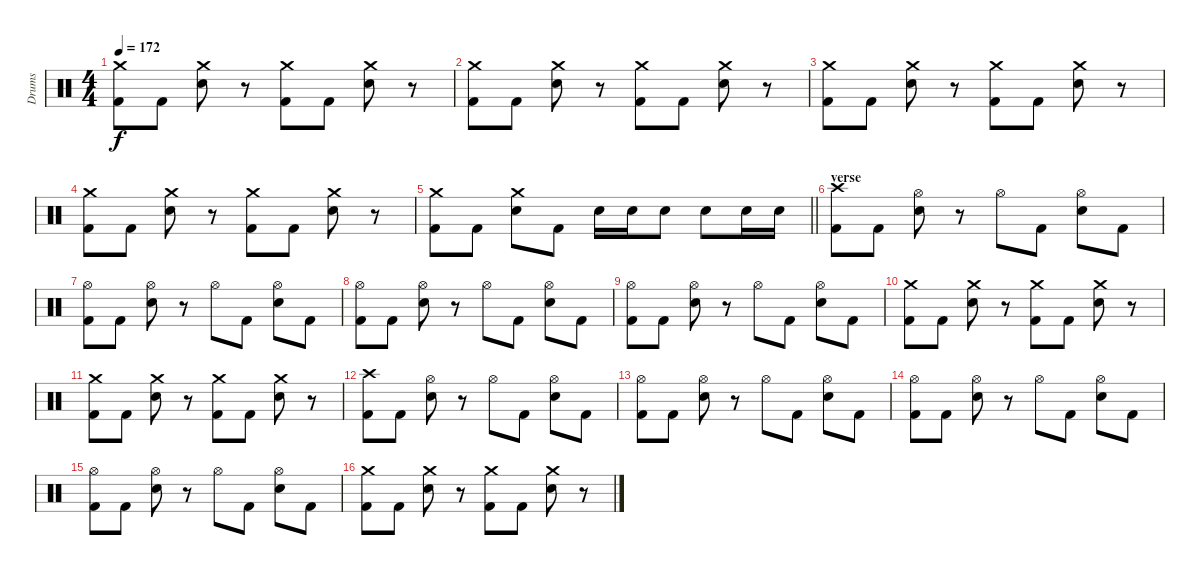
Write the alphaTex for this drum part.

\track ("Drums" "Drums") {instrument percussion}
\staff {score}
\articulation defaults
\ts (4 4)
\tempo 172
\clef neutral
\ks c
("Crash medium (hit)" "Kick (hit) 2").8{dy f} "Kick (hit) 2".8 ("Crash medium (hit)" "Electric Snare (hit)").8 r.8 ("Crash medium (hit)" "Kick (hit) 2").8 "Kick (hit) 2".8 ("Crash medium (hit)" "Electric Snare (hit)").8 r.8 |
("Crash medium (hit)" "Kick (hit) 2").8 "Kick (hit) 2".8 ("Crash medium (hit)" "Electric Snare (hit)").8 r.8 ("Crash medium (hit)" "Kick (hit) 2").8 "Kick (hit) 2".8 ("Crash medium (hit)" "Electric Snare (hit)").8 r.8 |
("Crash medium (hit)" "Kick (hit) 2").8 "Kick (hit) 2".8 ("Crash medium (hit)" "Electric Snare (hit)").8 r.8 ("Crash medium (hit)" "Kick (hit) 2").8 "Kick (hit) 2".8 ("Crash medium (hit)" "Electric Snare (hit)").8 r.8 |
("Crash medium (hit)" "Kick (hit) 2").8 "Kick (hit) 2".8 ("Crash medium (hit)" "Electric Snare (hit)").8 r.8 ("Crash medium (hit)" "Kick (hit) 2").8 "Kick (hit) 2".8 ("Crash medium (hit)" "Electric Snare (hit)").8 r.8 |
\barLineRight lightlight
("Crash medium (hit)" "Kick (hit) 2").8 "Kick (hit) 2".8 ("Crash medium (hit)" "Electric Snare (hit)").8 "Kick (hit) 2".8 "Electric Snare (hit)".16 "Electric Snare (hit)".16 "Electric Snare (hit)".8 "Electric Snare (hit)".8 "Electric Snare (hit)".16 "Electric Snare (hit)".16 |
\section ("" "verse")
("Crash high (hit)" "Kick (hit) 2").8 "Kick (hit) 2".8 ("Hi-Hat (open)" "Electric Snare (hit)").8 r.8 "Hi-Hat (open)".8 "Kick (hit) 2".8 ("Hi-Hat (open)" "Electric Snare (hit)").8 "Kick (hit) 2".8 |
("Hi-Hat (open)" "Kick (hit) 2").8 "Kick (hit) 2".8 ("Hi-Hat (open)" "Electric Snare (hit)").8 r.8 "Hi-Hat (open)".8 "Kick (hit) 2".8 ("Hi-Hat (open)" "Electric Snare (hit)").8 "Kick (hit) 2".8 |
("Hi-Hat (open)" "Kick (hit) 2").8 "Kick (hit) 2".8 ("Hi-Hat (open)" "Electric Snare (hit)").8 r.8 "Hi-Hat (open)".8 "Kick (hit) 2".8 ("Hi-Hat (open)" "Electric Snare (hit)").8 "Kick (hit) 2".8 |
("Hi-Hat (open)" "Kick (hit) 2").8 "Kick (hit) 2".8 ("Hi-Hat (open)" "Electric Snare (hit)").8 r.8 "Hi-Hat (open)".8 "Kick (hit) 2".8 ("Hi-Hat (open)" "Electric Snare (hit)").8 "Kick (hit) 2".8 |
("Crash medium (hit)" "Kick (hit) 2").8 "Kick (hit) 2".8 ("Crash medium (hit)" "Electric Snare (hit)").8 r.8 ("Crash medium (hit)" "Kick (hit) 2").8 "Kick (hit) 2".8 ("Crash medium (hit)" "Electric Snare (hit)").8 r.8 |
("Crash medium (hit)" "Kick (hit) 2").8 "Kick (hit) 2".8 ("Crash medium (hit)" "Electric Snare (hit)").8 r.8 ("Crash medium (hit)" "Kick (hit) 2").8 "Kick (hit) 2".8 ("Crash medium (hit)" "Electric Snare (hit)").8 r.8 |
("Crash high (hit)" "Kick (hit) 2").8 "Kick (hit) 2".8 ("Hi-Hat (open)" "Electric Snare (hit)").8 r.8 "Hi-Hat (open)".8 "Kick (hit) 2".8 ("Hi-Hat (open)" "Electric Snare (hit)").8 "Kick (hit) 2".8 |
("Hi-Hat (open)" "Kick (hit) 2").8 "Kick (hit) 2".8 ("Hi-Hat (open)" "Electric Snare (hit)").8 r.8 "Hi-Hat (open)".8 "Kick (hit) 2".8 ("Hi-Hat (open)" "Electric Snare (hit)").8 "Kick (hit) 2".8 |
("Hi-Hat (open)" "Kick (hit) 2").8 "Kick (hit) 2".8 ("Hi-Hat (open)" "Electric Snare (hit)").8 r.8 "Hi-Hat (open)".8 "Kick (hit) 2".8 ("Hi-Hat (open)" "Electric Snare (hit)").8 "Kick (hit) 2".8 |
("Hi-Hat (open)" "Kick (hit) 2").8 "Kick (hit) 2".8 ("Hi-Hat (open)" "Electric Snare (hit)").8 r.8 "Hi-Hat (open)".8 "Kick (hit) 2".8 ("Hi-Hat (open)" "Electric Snare (hit)").8 "Kick (hit) 2".8 |
("Crash medium (hit)" "Kick (hit) 2").8 "Kick (hit) 2".8 ("Crash medium (hit)" "Electric Snare (hit)").8 r.8 ("Crash medium (hit)" "Kick (hit) 2").8 "Kick (hit) 2".8 ("Crash medium (hit)" "Electric Snare (hit)").8 r.8
